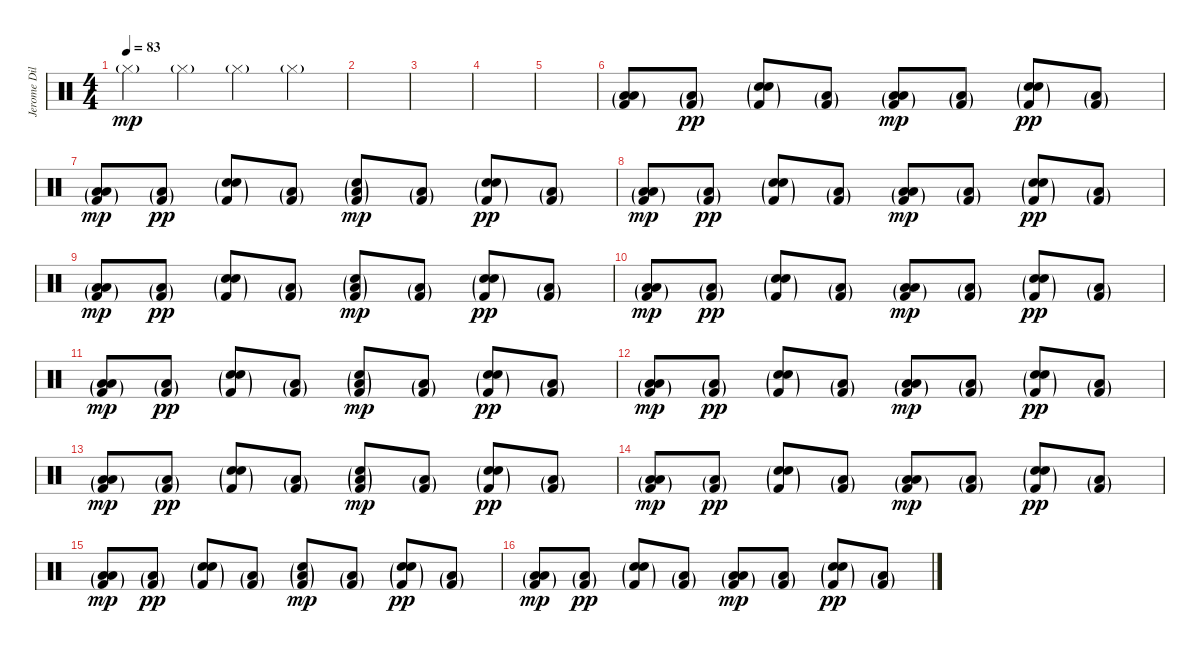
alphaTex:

\track ("Jerome Dillon" "Jerome Dil") {instrument percussion}
\staff {score}
\articulation defaults
\ts (4 4)
\tempo 83
\clef neutral
\ks c "Hi-Hat (closed)"{g}.4{dy mp} "Hi-Hat (closed)"{g}.4 "Hi-Hat (closed)"{g}.4 "Hi-Hat (closed)"{g}.4
|
|
|
|
|
("Low Floor Tom (hit)"{g} "Low Tom (hit)"{g} "Kick (hit) 2"{g}).8 ("Low Tom (hit)"{g} "Kick (hit) 2"{g}).8{dy pp} ("Hand Clap (hit)"{g} "Electric Snare (hit)"{g} "Kick (hit) 2"{g}).8 ("Low Tom (hit)"{g} "Kick (hit) 2"{g}).8 ("Low Floor Tom (hit)"{g} "Low Tom (hit)"{g} "Kick (hit) 2"{g}).8{dy mp} ("Low Tom (hit)"{g} "Kick (hit) 2"{g}).8 ("Hand Clap (hit)"{g} "Electric Snare (hit)"{g} "Kick (hit) 2"{g}).8{dy pp} ("Low Tom (hit)"{g} "Kick (hit) 2"{g}).8 |
("Low Floor Tom (hit)"{g} "Low Tom (hit)"{g} "Kick (hit) 2"{g}).8{dy mp} ("Low Tom (hit)"{g} "Kick (hit) 2"{g}).8{dy pp} ("Hand Clap (hit)"{g} "Electric Snare (hit)"{g} "Kick (hit) 2"{g}).8 ("Low Tom (hit)"{g} "Kick (hit) 2"{g}).8 ("Low Floor Tom (hit)"{g} "Snare (hit)"{g} "Kick (hit) 2"{g}).8{dy mp} ("Low Tom (hit)"{g} "Kick (hit) 2"{g}).8 ("Hand Clap (hit)"{g} "Electric Snare (hit)"{g} "Kick (hit) 2"{g}).8{dy pp} ("Low Tom (hit)"{g} "Kick (hit) 2"{g}).8 |
("Low Floor Tom (hit)"{g} "Low Tom (hit)"{g} "Kick (hit) 2"{g}).8{dy mp} ("Low Tom (hit)"{g} "Kick (hit) 2"{g}).8{dy pp} ("Hand Clap (hit)"{g} "Electric Snare (hit)"{g} "Kick (hit) 2"{g}).8 ("Low Tom (hit)"{g} "Kick (hit) 2"{g}).8 ("Low Floor Tom (hit)"{g} "Low Tom (hit)"{g} "Kick (hit) 2"{g}).8{dy mp} ("Low Tom (hit)"{g} "Kick (hit) 2"{g}).8 ("Hand Clap (hit)"{g} "Electric Snare (hit)"{g} "Kick (hit) 2"{g}).8{dy pp} ("Low Tom (hit)"{g} "Kick (hit) 2"{g}).8 |
("Low Floor Tom (hit)"{g} "Low Tom (hit)"{g} "Kick (hit) 2"{g}).8{dy mp} ("Low Tom (hit)"{g} "Kick (hit) 2"{g}).8{dy pp} ("Hand Clap (hit)"{g} "Electric Snare (hit)"{g} "Kick (hit) 2"{g}).8 ("Low Tom (hit)"{g} "Kick (hit) 2"{g}).8 ("Low Floor Tom (hit)"{g} "Snare (hit)"{g} "Kick (hit) 2"{g}).8{dy mp} ("Low Tom (hit)"{g} "Kick (hit) 2"{g}).8 ("Hand Clap (hit)"{g} "Electric Snare (hit)"{g} "Kick (hit) 2"{g}).8{dy pp} ("Low Tom (hit)"{g} "Kick (hit) 2"{g}).8 |
("Low Floor Tom (hit)"{g} "Low Tom (hit)"{g} "Kick (hit) 2"{g}).8{dy mp} ("Low Tom (hit)"{g} "Kick (hit) 2"{g}).8{dy pp} ("Hand Clap (hit)"{g} "Electric Snare (hit)"{g} "Kick (hit) 2"{g}).8 ("Low Tom (hit)"{g} "Kick (hit) 2"{g}).8 ("Low Floor Tom (hit)"{g} "Low Tom (hit)"{g} "Kick (hit) 2"{g}).8{dy mp} ("Low Tom (hit)"{g} "Kick (hit) 2"{g}).8 ("Hand Clap (hit)"{g} "Electric Snare (hit)"{g} "Kick (hit) 2"{g}).8{dy pp} ("Low Tom (hit)"{g} "Kick (hit) 2"{g}).8 |
("Low Floor Tom (hit)"{g} "Low Tom (hit)"{g} "Kick (hit) 2"{g}).8{dy mp} ("Low Tom (hit)"{g} "Kick (hit) 2"{g}).8{dy pp} ("Hand Clap (hit)"{g} "Electric Snare (hit)"{g} "Kick (hit) 2"{g}).8 ("Low Tom (hit)"{g} "Kick (hit) 2"{g}).8 ("Low Floor Tom (hit)"{g} "Snare (hit)"{g} "Kick (hit) 2"{g}).8{dy mp} ("Low Tom (hit)"{g} "Kick (hit) 2"{g}).8 ("Hand Clap (hit)"{g} "Electric Snare (hit)"{g} "Kick (hit) 2"{g}).8{dy pp} ("Low Tom (hit)"{g} "Kick (hit) 2"{g}).8 |
("Low Floor Tom (hit)"{g} "Low Tom (hit)"{g} "Kick (hit) 2"{g}).8{dy mp} ("Low Tom (hit)"{g} "Kick (hit) 2"{g}).8{dy pp} ("Hand Clap (hit)"{g} "Electric Snare (hit)"{g} "Kick (hit) 2"{g}).8 ("Low Tom (hit)"{g} "Kick (hit) 2"{g}).8 ("Low Floor Tom (hit)"{g} "Low Tom (hit)"{g} "Kick (hit) 2"{g}).8{dy mp} ("Low Tom (hit)"{g} "Kick (hit) 2"{g}).8 ("Hand Clap (hit)"{g} "Electric Snare (hit)"{g} "Kick (hit) 2"{g}).8{dy pp} ("Low Tom (hit)"{g} "Kick (hit) 2"{g}).8 |
("Low Floor Tom (hit)"{g} "Low Tom (hit)"{g} "Kick (hit) 2"{g}).8{dy mp} ("Low Tom (hit)"{g} "Kick (hit) 2"{g}).8{dy pp} ("Hand Clap (hit)"{g} "Electric Snare (hit)"{g} "Kick (hit) 2"{g}).8 ("Low Tom (hit)"{g} "Kick (hit) 2"{g}).8 ("Low Floor Tom (hit)"{g} "Snare (hit)"{g} "Kick (hit) 2"{g}).8{dy mp} ("Low Tom (hit)"{g} "Kick (hit) 2"{g}).8 ("Hand Clap (hit)"{g} "Electric Snare (hit)"{g} "Kick (hit) 2"{g}).8{dy pp} ("Low Tom (hit)"{g} "Kick (hit) 2"{g}).8 |
("Low Floor Tom (hit)"{g} "Low Tom (hit)"{g} "Kick (hit) 2"{g}).8{dy mp} ("Low Tom (hit)"{g} "Kick (hit) 2"{g}).8{dy pp} ("Hand Clap (hit)"{g} "Electric Snare (hit)"{g} "Kick (hit) 2"{g}).8 ("Low Tom (hit)"{g} "Kick (hit) 2"{g}).8 ("Low Floor Tom (hit)"{g} "Low Tom (hit)"{g} "Kick (hit) 2"{g}).8{dy mp} ("Low Tom (hit)"{g} "Kick (hit) 2"{g}).8 ("Hand Clap (hit)"{g} "Electric Snare (hit)"{g} "Kick (hit) 2"{g}).8{dy pp} ("Low Tom (hit)"{g} "Kick (hit) 2"{g}).8 |
("Low Floor Tom (hit)"{g} "Low Tom (hit)"{g} "Kick (hit) 2"{g}).8{dy mp} ("Low Tom (hit)"{g} "Kick (hit) 2"{g}).8{dy pp} ("Hand Clap (hit)"{g} "Electric Snare (hit)"{g} "Kick (hit) 2"{g}).8 ("Low Tom (hit)"{g} "Kick (hit) 2"{g}).8 ("Low Floor Tom (hit)"{g} "Snare (hit)"{g} "Kick (hit) 2"{g}).8{dy mp} ("Low Tom (hit)"{g} "Kick (hit) 2"{g}).8 ("Hand Clap (hit)"{g} "Electric Snare (hit)"{g} "Kick (hit) 2"{g}).8{dy pp} ("Low Tom (hit)"{g} "Kick (hit) 2"{g}).8 |
("Low Floor Tom (hit)"{g} "Low Tom (hit)"{g} "Kick (hit) 2"{g}).8{dy mp} ("Low Tom (hit)"{g} "Kick (hit) 2"{g}).8{dy pp} ("Hand Clap (hit)"{g} "Electric Snare (hit)"{g} "Kick (hit) 2"{g}).8 ("Low Tom (hit)"{g} "Kick (hit) 2"{g}).8 ("Low Floor Tom (hit)"{g} "Low Tom (hit)"{g} "Kick (hit) 2"{g}).8{dy mp} ("Low Tom (hit)"{g} "Kick (hit) 2"{g}).8 ("Hand Clap (hit)"{g} "Electric Snare (hit)"{g} "Kick (hit) 2"{g}).8{dy pp} ("Low Tom (hit)"{g} "Kick (hit) 2"{g}).8
